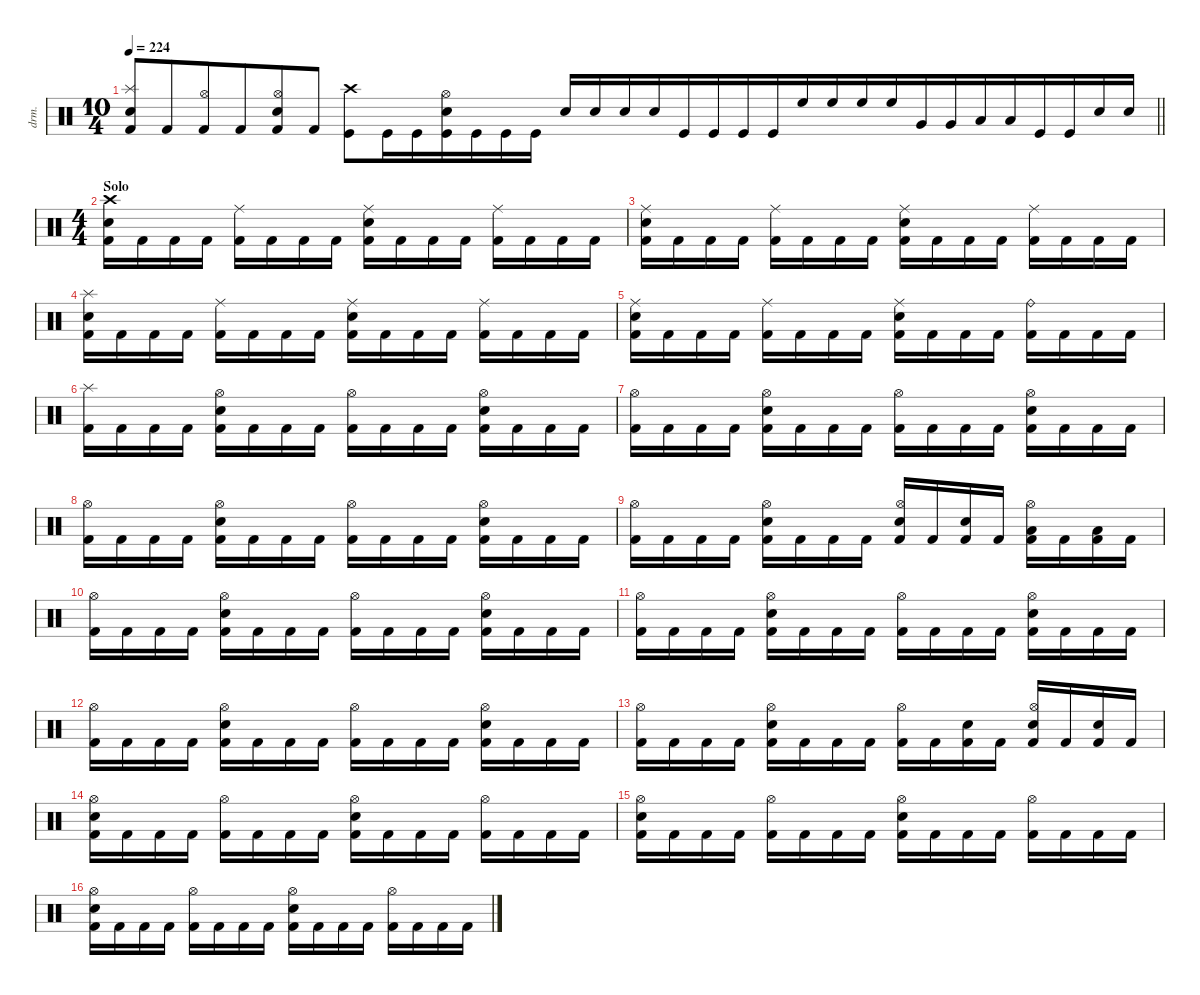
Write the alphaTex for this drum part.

\defaultSystemsLayout 4
\hideDynamics
\bracketExtendMode nobrackets
\otherSystemsTrackNameOrientation horizontal
\track ("Percussion" "drm.") {instrument percussion}
\staff {score}
\articulation defaults
\ts (10 4)
\beaming (8 6 4 10)
\tempo 224
\clef neutral
\barLineRight lightlight
\ks c
("Splash (hit)" "Snare (hit) 2" "Kick (hit) 2").8{dy f beam Up} "Kick (hit) 2".8{beam Up} ("Hi-Hat (open)" "Kick (hit) 2").8{beam Up} "Kick (hit) 2".8{beam Up} ("Hi-Hat (open)" "Snare (hit) 2" "Kick (hit) 2").8{beam Up} "Kick (hit) 2".8{beam Up} ("Crash high (hit)" "Kick (hit)").8{beam Down} "Kick (hit)".16{beam Down} "Kick (hit)".16{beam Down} ("Hi-Hat (open)" "Snare (hit) 2" "Kick (hit)").16{beam Down} "Kick (hit)".16{beam Down} "Kick (hit)".16{beam Down} "Kick (hit)".16{beam Down} "Snare (hit) 2".16{beam Up} "Snare (hit) 2".16{beam Up} "Snare (hit) 2".16{beam Up} "Snare (hit) 2".16{beam Up} "Kick (hit)".16{beam Up} "Kick (hit)".16{beam Up} "Kick (hit)".16{beam Up} "Kick (hit)".16{beam Up} "High Floor Tom (hit)".16{beam Up} "High Floor Tom (hit)".16{beam Up} "High Floor Tom (hit)".16{beam Up} "High Floor Tom (hit)".16{beam Up} "Very Low Tom (hit)".16{beam Up} "Very Low Tom (hit)".16{beam Up} "Low Tom (hit)".16{beam Up} "Low Tom (hit)".16{beam Up} "Kick (hit)".16{beam Up} "Kick (hit)".16{beam Up} "Snare (hit) 2".16{beam Up} "Snare (hit) 2".16{beam Up} |
\ts (4 4)
\beaming (8 2 2 2 2)
\section ("" "Solo")
("Crash high (hit)" "Snare (hit) 2" "Kick (hit) 2").16{beam Down} "Kick (hit) 2".16{beam Down} "Kick (hit) 2".16{beam Down} "Kick (hit) 2".16{beam Down} ("Ride (middle)" "Kick (hit) 2").16{beam Down} "Kick (hit) 2".16{beam Down} "Kick (hit) 2".16{beam Down} "Kick (hit) 2".16{beam Down} ("Ride (middle)" "Snare (hit) 2" "Kick (hit) 2").16{beam Down} "Kick (hit) 2".16{beam Down} "Kick (hit) 2".16{beam Down} "Kick (hit) 2".16{beam Down} ("Ride (middle)" "Kick (hit) 2").16{beam Down} "Kick (hit) 2".16{beam Down} "Kick (hit) 2".16{beam Down} "Kick (hit) 2".16{beam Down} |
("Ride (middle)" "Snare (hit) 2" "Kick (hit) 2").16{beam Down} "Kick (hit) 2".16{beam Down} "Kick (hit) 2".16{beam Down} "Kick (hit) 2".16{beam Down} ("Ride (middle)" "Kick (hit) 2").16{beam Down} "Kick (hit) 2".16{beam Down} "Kick (hit) 2".16{beam Down} "Kick (hit) 2".16{beam Down} ("Ride (middle)" "Snare (hit) 2" "Kick (hit) 2").16{beam Down} "Kick (hit) 2".16{beam Down} "Kick (hit) 2".16{beam Down} "Kick (hit) 2".16{beam Down} ("Ride (middle)" "Kick (hit) 2").16{beam Down} "Kick (hit) 2".16{beam Down} "Kick (hit) 2".16{beam Down} "Kick (hit) 2".16{beam Down} |
("Splash (hit)" "Snare (hit) 2" "Kick (hit) 2").16{beam Down} "Kick (hit) 2".16{beam Down} "Kick (hit) 2".16{beam Down} "Kick (hit) 2".16{beam Down} ("Ride (middle)" "Kick (hit) 2").16{beam Down} "Kick (hit) 2".16{beam Down} "Kick (hit) 2".16{beam Down} "Kick (hit) 2".16{beam Down} ("Ride (middle)" "Snare (hit) 2" "Kick (hit) 2").16{beam Down} "Kick (hit) 2".16{beam Down} "Kick (hit) 2".16{beam Down} "Kick (hit) 2".16{beam Down} ("Ride (middle)" "Kick (hit) 2").16{beam Down} "Kick (hit) 2".16{beam Down} "Kick (hit) 2".16{beam Down} "Kick (hit) 2".16{beam Down} |
("Ride (middle)" "Snare (hit) 2" "Kick (hit) 2").16{beam Down} "Kick (hit) 2".16{beam Down} "Kick (hit) 2".16{beam Down} "Kick (hit) 2".16{beam Down} ("Ride (middle)" "Kick (hit) 2").16{beam Down} "Kick (hit) 2".16{beam Down} "Kick (hit) 2".16{beam Down} "Kick (hit) 2".16{beam Down} ("Ride (middle)" "Snare (hit) 2" "Kick (hit) 2").16{beam Down} "Kick (hit) 2".16{beam Down} "Kick (hit) 2".16{beam Down} "Kick (hit) 2".16{beam Down} ("Ride (bell)" "Kick (hit) 2").16{beam Down} "Kick (hit) 2".16{beam Down} "Kick (hit) 2".16{beam Down} "Kick (hit) 2".16{beam Down} |
("Splash (hit)" "Kick (hit) 2").16{beam Down} "Kick (hit) 2".16{beam Down} "Kick (hit) 2".16{beam Down} "Kick (hit) 2".16{beam Down} ("Hi-Hat (open)" "Snare (hit) 2" "Kick (hit) 2").16{beam Down} "Kick (hit) 2".16{beam Down} "Kick (hit) 2".16{beam Down} "Kick (hit) 2".16{beam Down} ("Hi-Hat (open)" "Kick (hit) 2").16{beam Down} "Kick (hit) 2".16{beam Down} "Kick (hit) 2".16{beam Down} "Kick (hit) 2".16{beam Down} ("Hi-Hat (open)" "Snare (hit) 2" "Kick (hit) 2").16{beam Down} "Kick (hit) 2".16{beam Down} "Kick (hit) 2".16{beam Down} "Kick (hit) 2".16{beam Down} |
("Hi-Hat (open)" "Kick (hit) 2").16{beam Down} "Kick (hit) 2".16{beam Down} "Kick (hit) 2".16{beam Down} "Kick (hit) 2".16{beam Down} ("Hi-Hat (open)" "Snare (hit) 2" "Kick (hit) 2").16{beam Down} "Kick (hit) 2".16{beam Down} "Kick (hit) 2".16{beam Down} "Kick (hit) 2".16{beam Down} ("Hi-Hat (open)" "Kick (hit) 2").16{beam Down} "Kick (hit) 2".16{beam Down} "Kick (hit) 2".16{beam Down} "Kick (hit) 2".16{beam Down} ("Hi-Hat (open)" "Snare (hit) 2" "Kick (hit) 2").16{beam Down} "Kick (hit) 2".16{beam Down} "Kick (hit) 2".16{beam Down} "Kick (hit) 2".16{beam Down} |
("Hi-Hat (open)" "Kick (hit) 2").16{beam Down} "Kick (hit) 2".16{beam Down} "Kick (hit) 2".16{beam Down} "Kick (hit) 2".16{beam Down} ("Hi-Hat (open)" "Snare (hit) 2" "Kick (hit) 2").16{beam Down} "Kick (hit) 2".16{beam Down} "Kick (hit) 2".16{beam Down} "Kick (hit) 2".16{beam Down} ("Hi-Hat (open)" "Kick (hit) 2").16{beam Down} "Kick (hit) 2".16{beam Down} "Kick (hit) 2".16{beam Down} "Kick (hit) 2".16{beam Down} ("Hi-Hat (open)" "Snare (hit) 2" "Kick (hit) 2").16{beam Down} "Kick (hit) 2".16{beam Down} "Kick (hit) 2".16{beam Down} "Kick (hit) 2".16{beam Down} |
("Hi-Hat (open)" "Kick (hit) 2").16{beam Down} "Kick (hit) 2".16{beam Down} "Kick (hit) 2".16{beam Down} "Kick (hit) 2".16{beam Down} ("Hi-Hat (open)" "Snare (hit) 2" "Kick (hit) 2").16{beam Down} "Kick (hit) 2".16{beam Down} "Kick (hit) 2".16{beam Down} "Kick (hit) 2".16{beam Down} ("Hi-Hat (open)" "Snare (hit) 2" "Kick (hit) 2").16{beam Up} "Kick (hit) 2".16{beam Up} ("Snare (hit) 2" "Kick (hit) 2").16{beam Up} "Kick (hit) 2".16{beam Up} ("Hi-Hat (open)" "Low Tom (hit)" "Kick (hit) 2").16{beam Down} "Kick (hit) 2".16{beam Down} ("Low Tom (hit)" "Kick (hit) 2").16{beam Down} "Kick (hit) 2".16{beam Down} |
("Hi-Hat (open)" "Kick (hit) 2").16{beam Down} "Kick (hit) 2".16{beam Down} "Kick (hit) 2".16{beam Down} "Kick (hit) 2".16{beam Down} ("Hi-Hat (open)" "Snare (hit) 2" "Kick (hit) 2").16{beam Down} "Kick (hit) 2".16{beam Down} "Kick (hit) 2".16{beam Down} "Kick (hit) 2".16{beam Down} ("Hi-Hat (open)" "Kick (hit) 2").16{beam Down} "Kick (hit) 2".16{beam Down} "Kick (hit) 2".16{beam Down} "Kick (hit) 2".16{beam Down} ("Hi-Hat (open)" "Snare (hit) 2" "Kick (hit) 2").16{beam Down} "Kick (hit) 2".16{beam Down} "Kick (hit) 2".16{beam Down} "Kick (hit) 2".16{beam Down} |
("Hi-Hat (open)" "Kick (hit) 2").16{beam Down} "Kick (hit) 2".16{beam Down} "Kick (hit) 2".16{beam Down} "Kick (hit) 2".16{beam Down} ("Hi-Hat (open)" "Snare (hit) 2" "Kick (hit) 2").16{beam Down} "Kick (hit) 2".16{beam Down} "Kick (hit) 2".16{beam Down} "Kick (hit) 2".16{beam Down} ("Hi-Hat (open)" "Kick (hit) 2").16{beam Down} "Kick (hit) 2".16{beam Down} "Kick (hit) 2".16{beam Down} "Kick (hit) 2".16{beam Down} ("Hi-Hat (open)" "Snare (hit) 2" "Kick (hit) 2").16{beam Down} "Kick (hit) 2".16{beam Down} "Kick (hit) 2".16{beam Down} "Kick (hit) 2".16{beam Down} |
("Hi-Hat (open)" "Kick (hit) 2").16{beam Down} "Kick (hit) 2".16{beam Down} "Kick (hit) 2".16{beam Down} "Kick (hit) 2".16{beam Down} ("Hi-Hat (open)" "Snare (hit) 2" "Kick (hit) 2").16{beam Down} "Kick (hit) 2".16{beam Down} "Kick (hit) 2".16{beam Down} "Kick (hit) 2".16{beam Down} ("Hi-Hat (open)" "Kick (hit) 2").16{beam Down} "Kick (hit) 2".16{beam Down} "Kick (hit) 2".16{beam Down} "Kick (hit) 2".16{beam Down} ("Hi-Hat (open)" "Snare (hit) 2" "Kick (hit) 2").16{beam Down} "Kick (hit) 2".16{beam Down} "Kick (hit) 2".16{beam Down} "Kick (hit) 2".16{beam Down} |
("Hi-Hat (open)" "Kick (hit) 2").16{beam Down} "Kick (hit) 2".16{beam Down} "Kick (hit) 2".16{beam Down} "Kick (hit) 2".16{beam Down} ("Hi-Hat (open)" "Snare (hit) 2" "Kick (hit) 2").16{beam Down} "Kick (hit) 2".16{beam Down} "Kick (hit) 2".16{beam Down} "Kick (hit) 2".16{beam Down} ("Hi-Hat (open)" "Kick (hit) 2").16{beam Down} "Kick (hit) 2".16{beam Down} ("Snare (hit) 2" "Kick (hit) 2").16{beam Down} "Kick (hit) 2".16{beam Down} ("Hi-Hat (open)" "Snare (hit) 2" "Kick (hit) 2").16{beam Up} "Kick (hit) 2".16{beam Up} ("Snare (hit) 2" "Kick (hit) 2").16{beam Up} "Kick (hit) 2".16{beam Up} |
("Hi-Hat (open)" "Snare (hit) 2" "Kick (hit) 2").16{beam Down} "Kick (hit) 2".16{beam Down} "Kick (hit) 2".16{beam Down} "Kick (hit) 2".16{beam Down} ("Hi-Hat (open)" "Kick (hit) 2").16{beam Down} "Kick (hit) 2".16{beam Down} "Kick (hit) 2".16{beam Down} "Kick (hit) 2".16{beam Down} ("Hi-Hat (open)" "Snare (hit) 2" "Kick (hit) 2").16{beam Down} "Kick (hit) 2".16{beam Down} "Kick (hit) 2".16{beam Down} "Kick (hit) 2".16{beam Down} ("Hi-Hat (open)" "Kick (hit) 2").16{beam Down} "Kick (hit) 2".16{beam Down} "Kick (hit) 2".16{beam Down} "Kick (hit) 2".16{beam Down} |
("Hi-Hat (open)" "Snare (hit) 2" "Kick (hit) 2").16{beam Down} "Kick (hit) 2".16{beam Down} "Kick (hit) 2".16{beam Down} "Kick (hit) 2".16{beam Down} ("Hi-Hat (open)" "Kick (hit) 2").16{beam Down} "Kick (hit) 2".16{beam Down} "Kick (hit) 2".16{beam Down} "Kick (hit) 2".16{beam Down} ("Hi-Hat (open)" "Snare (hit) 2" "Kick (hit) 2").16{beam Down} "Kick (hit) 2".16{beam Down} "Kick (hit) 2".16{beam Down} "Kick (hit) 2".16{beam Down} ("Hi-Hat (open)" "Kick (hit) 2").16{beam Down} "Kick (hit) 2".16{beam Down} "Kick (hit) 2".16{beam Down} "Kick (hit) 2".16{beam Down} |
("Hi-Hat (open)" "Snare (hit) 2" "Kick (hit) 2").16{beam Down} "Kick (hit) 2".16{beam Down} "Kick (hit) 2".16{beam Down} "Kick (hit) 2".16{beam Down} ("Hi-Hat (open)" "Kick (hit) 2").16{beam Down} "Kick (hit) 2".16{beam Down} "Kick (hit) 2".16{beam Down} "Kick (hit) 2".16{beam Down} ("Hi-Hat (open)" "Snare (hit) 2" "Kick (hit) 2").16{beam Down} "Kick (hit) 2".16{beam Down} "Kick (hit) 2".16{beam Down} "Kick (hit) 2".16{beam Down} ("Hi-Hat (open)" "Kick (hit) 2").16{beam Down} "Kick (hit) 2".16{beam Down} "Kick (hit) 2".16{beam Down} "Kick (hit) 2".16{beam Down}
